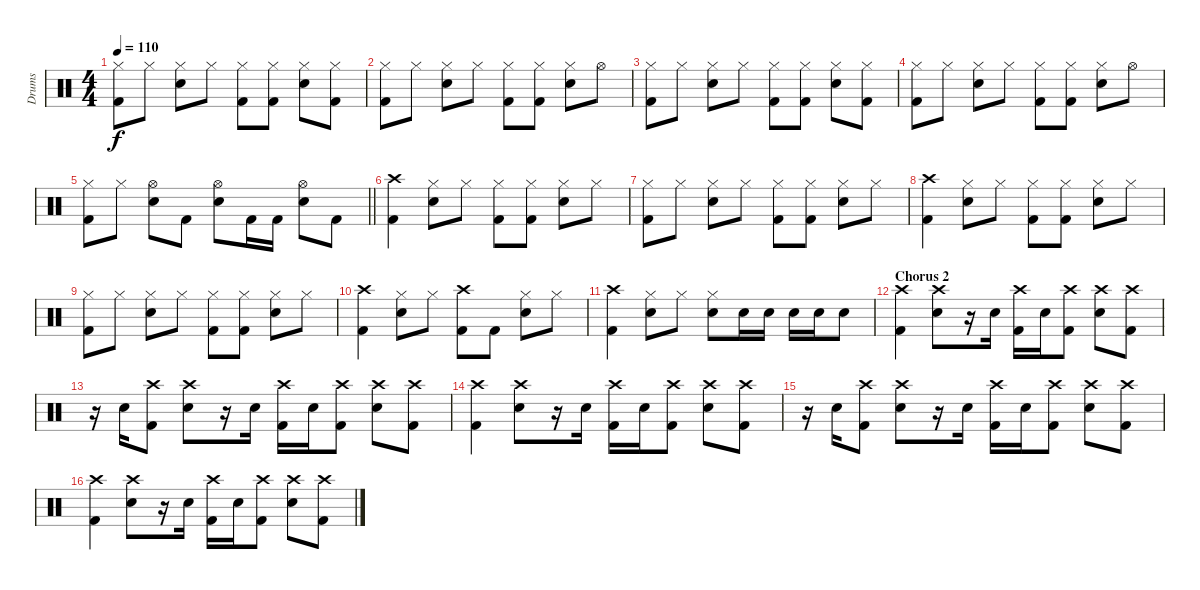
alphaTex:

\track ("Drums" "Drums") {instrument percussion}
\staff {score}
\articulation defaults
\ts (4 4)
\tempo 110
\clef neutral
\ks c
("Hi-Hat (closed)" "Kick (hit) 2").8{dy f} "Hi-Hat (closed)".8 ("Hi-Hat (closed)" "Electric Snare (hit)").8 "Hi-Hat (closed)".8 ("Hi-Hat (closed)" "Kick (hit) 2").8 ("Hi-Hat (closed)" "Kick (hit) 2").8 ("Hi-Hat (closed)" "Electric Snare (hit)").8 ("Hi-Hat (closed)" "Kick (hit) 2").8 |
("Hi-Hat (closed)" "Kick (hit) 2").8 "Hi-Hat (closed)".8 ("Hi-Hat (closed)" "Electric Snare (hit)").8 "Hi-Hat (closed)".8 ("Hi-Hat (closed)" "Kick (hit) 2").8 ("Hi-Hat (closed)" "Kick (hit) 2").8 ("Hi-Hat (closed)" "Electric Snare (hit)").8 "Hi-Hat (open)".8 |
("Hi-Hat (closed)" "Kick (hit) 2").8 "Hi-Hat (closed)".8 ("Hi-Hat (closed)" "Electric Snare (hit)").8 "Hi-Hat (closed)".8 ("Hi-Hat (closed)" "Kick (hit) 2").8 ("Hi-Hat (closed)" "Kick (hit) 2").8 ("Hi-Hat (closed)" "Electric Snare (hit)").8 ("Hi-Hat (closed)" "Kick (hit) 2").8 |
("Hi-Hat (closed)" "Kick (hit) 2").8 "Hi-Hat (closed)".8 ("Hi-Hat (closed)" "Electric Snare (hit)").8 "Hi-Hat (closed)".8 ("Hi-Hat (closed)" "Kick (hit) 2").8 ("Hi-Hat (closed)" "Kick (hit) 2").8 ("Hi-Hat (closed)" "Electric Snare (hit)").8 "Hi-Hat (open)".8 |
\barLineRight lightlight
("Hi-Hat (closed)" "Kick (hit) 2").8 "Hi-Hat (closed)".8 ("Hi-Hat (open)" "Electric Snare (hit)").8 "Kick (hit) 2".8 ("Hi-Hat (open)" "Electric Snare (hit)").8 "Kick (hit) 2".16 "Kick (hit) 2".16 ("Hi-Hat (open)" "Electric Snare (hit)").8 "Kick (hit) 2".8 |
("Crash high (hit)" "Kick (hit) 2").4 ("Hi-Hat (closed)" "Electric Snare (hit)").8 "Hi-Hat (closed)".8 ("Hi-Hat (closed)" "Kick (hit) 2").8 ("Hi-Hat (closed)" "Kick (hit) 2").8 ("Hi-Hat (closed)" "Electric Snare (hit)").8 "Hi-Hat (closed)".8 |
("Hi-Hat (closed)" "Kick (hit) 2").8 "Hi-Hat (closed)".8 ("Hi-Hat (closed)" "Electric Snare (hit)").8 "Hi-Hat (closed)".8 ("Hi-Hat (closed)" "Kick (hit) 2").8 ("Hi-Hat (closed)" "Kick (hit) 2").8 ("Hi-Hat (closed)" "Electric Snare (hit)").8 "Hi-Hat (closed)".8 |
("Crash high (hit)" "Kick (hit) 2").4 ("Hi-Hat (closed)" "Electric Snare (hit)").8 "Hi-Hat (closed)".8 ("Hi-Hat (closed)" "Kick (hit) 2").8 ("Hi-Hat (closed)" "Kick (hit) 2").8 ("Hi-Hat (closed)" "Electric Snare (hit)").8 "Hi-Hat (closed)".8 |
("Hi-Hat (closed)" "Kick (hit) 2").8 "Hi-Hat (closed)".8 ("Hi-Hat (closed)" "Electric Snare (hit)").8 "Hi-Hat (closed)".8 ("Hi-Hat (closed)" "Kick (hit) 2").8 ("Hi-Hat (closed)" "Kick (hit) 2").8 ("Hi-Hat (closed)" "Electric Snare (hit)").8 "Hi-Hat (closed)".8 |
("Crash high (hit)" "Kick (hit) 2").4 ("Hi-Hat (closed)" "Electric Snare (hit)").8 "Hi-Hat (closed)".8 ("Crash high (hit)" "Kick (hit) 2").8 "Kick (hit) 2".8 ("Hi-Hat (closed)" "Electric Snare (hit)").8 "Hi-Hat (closed)".8 |
("Crash high (hit)" "Kick (hit) 2").4 ("Hi-Hat (closed)" "Electric Snare (hit)").8 "Hi-Hat (closed)".8 ("Hi-Hat (closed)" "Electric Snare (hit)").8 "Electric Snare (hit)".16 "Electric Snare (hit)".16 "Electric Snare (hit)".16 "Electric Snare (hit)".16 "Electric Snare (hit)".8 |
\section ("" "Chorus 2")
("Crash high (hit)" "Kick (hit) 2").4 ("Crash high (hit)" "Electric Snare (hit)").8 r.16 "Electric Snare (hit)".16 ("Crash high (hit)" "Kick (hit) 2").16 "Electric Snare (hit)".16 ("Crash high (hit)" "Kick (hit) 2").8 ("Crash high (hit)" "Electric Snare (hit)").8 ("Crash high (hit)" "Kick (hit) 2").8 |
r.16 "Electric Snare (hit)".16 ("Crash high (hit)" "Kick (hit) 2").8 ("Crash high (hit)" "Electric Snare (hit)").8 r.16 "Electric Snare (hit)".16 ("Crash high (hit)" "Kick (hit) 2").16 "Electric Snare (hit)".16 ("Crash high (hit)" "Kick (hit) 2").8 ("Crash high (hit)" "Electric Snare (hit)").8 ("Crash high (hit)" "Kick (hit) 2").8 |
("Crash high (hit)" "Kick (hit) 2").4 ("Crash high (hit)" "Electric Snare (hit)").8 r.16 "Electric Snare (hit)".16 ("Crash high (hit)" "Kick (hit) 2").16 "Electric Snare (hit)".16 ("Crash high (hit)" "Kick (hit) 2").8 ("Crash high (hit)" "Electric Snare (hit)").8 ("Crash high (hit)" "Kick (hit) 2").8 |
r.16 "Electric Snare (hit)".16 ("Crash high (hit)" "Kick (hit) 2").8 ("Crash high (hit)" "Electric Snare (hit)").8 r.16 "Electric Snare (hit)".16 ("Crash high (hit)" "Kick (hit) 2").16 "Electric Snare (hit)".16 ("Crash high (hit)" "Kick (hit) 2").8 ("Crash high (hit)" "Electric Snare (hit)").8 ("Crash high (hit)" "Kick (hit) 2").8 |
("Crash high (hit)" "Kick (hit) 2").4 ("Crash high (hit)" "Electric Snare (hit)").8 r.16 "Electric Snare (hit)".16 ("Crash high (hit)" "Kick (hit) 2").16 "Electric Snare (hit)".16 ("Crash high (hit)" "Kick (hit) 2").8 ("Crash high (hit)" "Electric Snare (hit)").8 ("Crash high (hit)" "Kick (hit) 2").8
